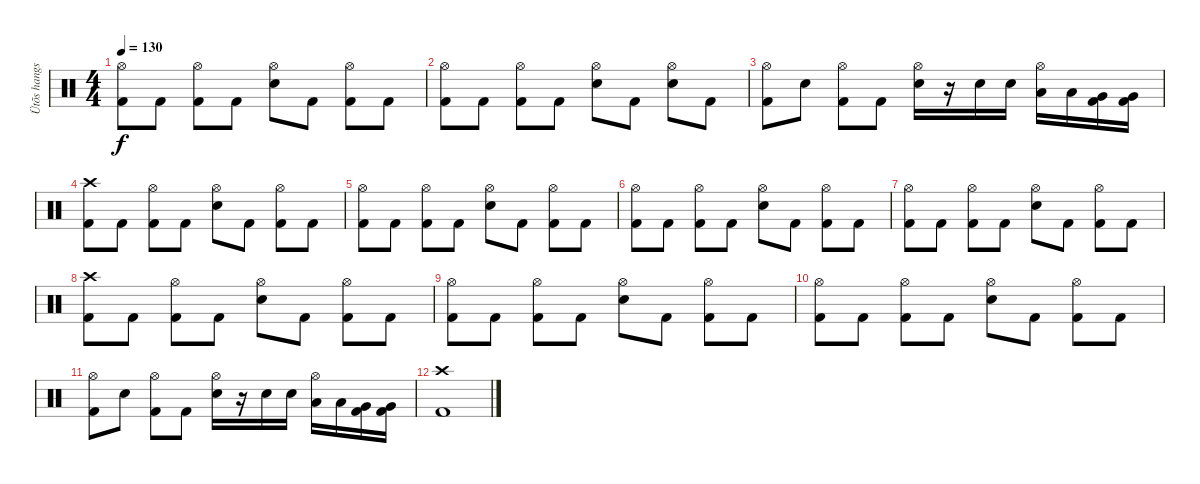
\track ("Ütõs hangszer" "Ütõs hangs") {instrument percussion}
\staff {score}
\articulation defaults
\ts (4 4)
\tempo 130
\clef neutral
\ks c
("Hi-Hat (open)" "Kick (hit) 2").8{dy f} "Kick (hit) 2".8 ("Hi-Hat (open)" "Kick (hit) 2").8 "Kick (hit) 2".8 ("Hi-Hat (open)" "Snare (hit) 2").8 "Kick (hit) 2".8 ("Hi-Hat (open)" "Kick (hit) 2").8 "Kick (hit) 2".8 |
("Hi-Hat (open)" "Kick (hit) 2").8 "Kick (hit) 2".8 ("Hi-Hat (open)" "Kick (hit) 2").8 "Kick (hit) 2".8 ("Hi-Hat (open)" "Snare (hit) 2").8 "Kick (hit) 2".8 ("Hi-Hat (open)" "Snare (hit) 2").8 "Kick (hit) 2".8 |
("Hi-Hat (open)" "Kick (hit) 2").8 "Snare (hit) 2".8 ("Hi-Hat (open)" "Kick (hit) 2").8 "Kick (hit) 2".8 ("Hi-Hat (open)" "Snare (hit) 2").16 r.16 "Snare (hit) 2".16 "Snare (hit) 2".16 ("Hi-Hat (open)" "Low Tom (hit)").16 "Low Tom (hit)".16 ("Very Low Tom (hit)" "Kick (hit) 2").16 ("Very Low Tom (hit)" "Kick (hit) 2").16 |
("Crash high (hit)" "Kick (hit) 2").8 "Kick (hit) 2".8 ("Hi-Hat (open)" "Kick (hit) 2").8 "Kick (hit) 2".8 ("Hi-Hat (open)" "Snare (hit) 2").8 "Kick (hit) 2".8 ("Hi-Hat (open)" "Kick (hit) 2").8 "Kick (hit) 2".8 |
("Hi-Hat (open)" "Kick (hit) 2").8 "Kick (hit) 2".8 ("Hi-Hat (open)" "Kick (hit) 2").8 "Kick (hit) 2".8 ("Hi-Hat (open)" "Snare (hit) 2").8 "Kick (hit) 2".8 ("Hi-Hat (open)" "Kick (hit) 2").8 "Kick (hit) 2".8 |
("Hi-Hat (open)" "Kick (hit) 2").8 "Kick (hit) 2".8 ("Hi-Hat (open)" "Kick (hit) 2").8 "Kick (hit) 2".8 ("Hi-Hat (open)" "Snare (hit) 2").8 "Kick (hit) 2".8 ("Hi-Hat (open)" "Kick (hit) 2").8 "Kick (hit) 2".8 |
("Hi-Hat (open)" "Kick (hit) 2").8 "Kick (hit) 2".8 ("Hi-Hat (open)" "Kick (hit) 2").8 "Kick (hit) 2".8 ("Hi-Hat (open)" "Snare (hit) 2").8 "Kick (hit) 2".8 ("Hi-Hat (open)" "Kick (hit) 2").8 "Kick (hit) 2".8 |
("Crash high (hit)" "Kick (hit) 2").8 "Kick (hit) 2".8 ("Hi-Hat (open)" "Kick (hit) 2").8 "Kick (hit) 2".8 ("Hi-Hat (open)" "Snare (hit) 2").8 "Kick (hit) 2".8 ("Hi-Hat (open)" "Kick (hit) 2").8 "Kick (hit) 2".8 |
("Hi-Hat (open)" "Kick (hit) 2").8 "Kick (hit) 2".8 ("Hi-Hat (open)" "Kick (hit) 2").8 "Kick (hit) 2".8 ("Hi-Hat (open)" "Snare (hit) 2").8 "Kick (hit) 2".8 ("Hi-Hat (open)" "Kick (hit) 2").8 "Kick (hit) 2".8 |
("Hi-Hat (open)" "Kick (hit) 2").8 "Kick (hit) 2".8 ("Hi-Hat (open)" "Kick (hit) 2").8 "Kick (hit) 2".8 ("Hi-Hat (open)" "Snare (hit) 2").8 "Kick (hit) 2".8 ("Hi-Hat (open)" "Kick (hit) 2").8 "Kick (hit) 2".8 |
("Hi-Hat (open)" "Kick (hit) 2").8 "Snare (hit) 2".8 ("Hi-Hat (open)" "Kick (hit) 2").8 "Kick (hit) 2".8 ("Hi-Hat (open)" "Snare (hit) 2").16 r.16 "Snare (hit) 2".16 "Snare (hit) 2".16 ("Hi-Hat (open)" "Low Tom (hit)").16 "Low Tom (hit)".16 ("Very Low Tom (hit)" "Kick (hit) 2").16 ("Very Low Tom (hit)" "Kick (hit) 2").16 |
("Crash high (hit)" "Kick (hit) 2").1
